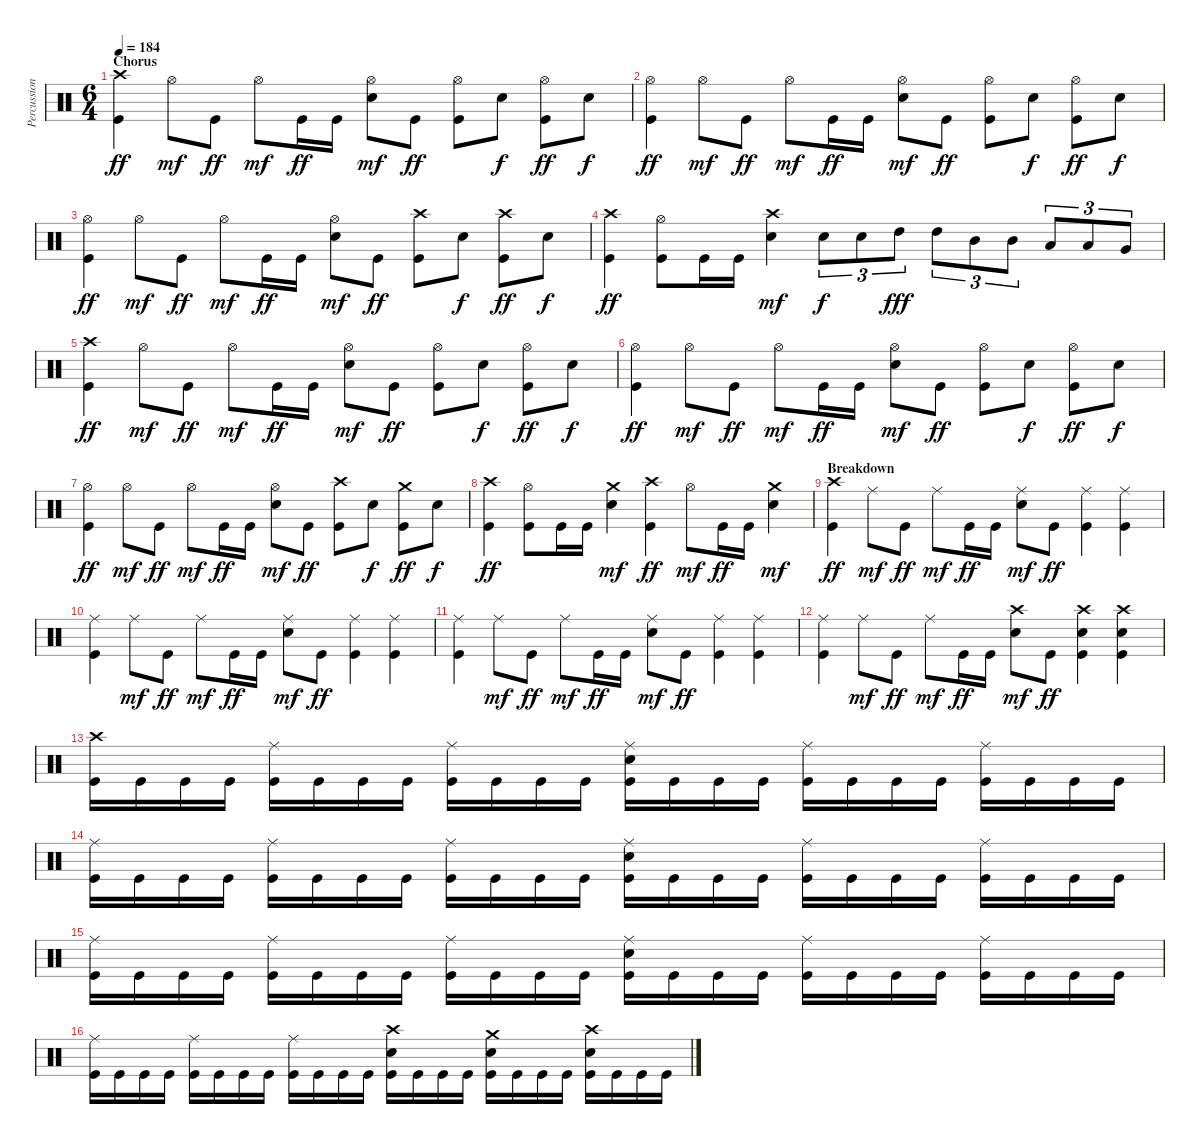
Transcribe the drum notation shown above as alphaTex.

\track ("Percussion" "Percussion") {instrument percussion}
\staff {score}
\articulation defaults
\ts (6 4)
\section ("" "Chorus")
\tempo 184
\clef neutral
\ks c
("Crash high (hit)" "Kick (hit)").4{dy ff} "Hi-Hat (open)".8{dy mf} "Kick (hit)".8{dy ff} "Hi-Hat (open)".8{dy mf} "Kick (hit)".16{dy ff} "Kick (hit)".16 ("Hi-Hat (open)" "Electric Snare (hit)").8{dy mf} "Kick (hit)".8{dy ff} ("Hi-Hat (open)" "Kick (hit)").8 "Electric Snare (hit)".8{dy f} ("Hi-Hat (open)" "Kick (hit)").8{dy ff} "Electric Snare (hit)".8{dy f} |
("Hi-Hat (open)" "Kick (hit)").4{dy ff} "Hi-Hat (open)".8{dy mf} "Kick (hit)".8{dy ff} "Hi-Hat (open)".8{dy mf} "Kick (hit)".16{dy ff} "Kick (hit)".16 ("Hi-Hat (open)" "Electric Snare (hit)").8{dy mf} "Kick (hit)".8{dy ff} ("Hi-Hat (open)" "Kick (hit)").8 "Electric Snare (hit)".8{dy f} ("Hi-Hat (open)" "Kick (hit)").8{dy ff} "Electric Snare (hit)".8{dy f} |
("Hi-Hat (open)" "Kick (hit)").4{dy ff} "Hi-Hat (open)".8{dy mf} "Kick (hit)".8{dy ff} "Hi-Hat (open)".8{dy mf} "Kick (hit)".16{dy ff} "Kick (hit)".16 ("Hi-Hat (open)" "Electric Snare (hit)").8{dy mf} "Kick (hit)".8{dy ff} ("Crash high (hit)" "Kick (hit)").8 "Electric Snare (hit)".8{dy f} ("Crash high (hit)" "Kick (hit)").8{dy ff} "Electric Snare (hit)".8{dy f} |
("Crash high (hit)" "Kick (hit)").4{dy ff} ("Hi-Hat (open)" "Kick (hit)").8 "Kick (hit)".16 "Kick (hit)".16 ("Crash high (hit)" "Electric Snare (hit)").4{dy mf} "Electric Snare (hit)".8{tu (3 2) dy f} "Electric Snare (hit)".8{tu (3 2)} "High Tom (hit)".8{tu (3 2) dy fff} "High Tom (hit)".8{tu (3 2)} "Mid Tom (hit)".8{tu (3 2)} "Mid Tom (hit)".8{tu (3 2)} "Low Tom (hit)".8{tu (3 2)} "Low Tom (hit)".8{tu (3 2)} "Very Low Tom (hit)".8{tu (3 2)} |
("Crash high (hit)" "Kick (hit)").4{dy ff} "Hi-Hat (open)".8{dy mf} "Kick (hit)".8{dy ff} "Hi-Hat (open)".8{dy mf} "Kick (hit)".16{dy ff} "Kick (hit)".16 ("Hi-Hat (open)" "Electric Snare (hit)").8{dy mf} "Kick (hit)".8{dy ff} ("Hi-Hat (open)" "Kick (hit)").8 "Electric Snare (hit)".8{dy f} ("Hi-Hat (open)" "Kick (hit)").8{dy ff} "Electric Snare (hit)".8{dy f} |
("Hi-Hat (open)" "Kick (hit)").4{dy ff} "Hi-Hat (open)".8{dy mf} "Kick (hit)".8{dy ff} "Hi-Hat (open)".8{dy mf} "Kick (hit)".16{dy ff} "Kick (hit)".16 ("Hi-Hat (open)" "Electric Snare (hit)").8{dy mf} "Kick (hit)".8{dy ff} ("Hi-Hat (open)" "Kick (hit)").8 "Electric Snare (hit)".8{dy f} ("Hi-Hat (open)" "Kick (hit)").8{dy ff} "Electric Snare (hit)".8{dy f} |
("Hi-Hat (open)" "Kick (hit)").4{dy ff} "Hi-Hat (open)".8{dy mf} "Kick (hit)".8{dy ff} "Hi-Hat (open)".8{dy mf} "Kick (hit)".16{dy ff} "Kick (hit)".16 ("Hi-Hat (open)" "Electric Snare (hit)").8{dy mf} "Kick (hit)".8{dy ff} ("Crash high (hit)" "Kick (hit)").8 "Electric Snare (hit)".8{dy f} ("Crash medium (hit)" "Kick (hit)").8{dy ff} "Electric Snare (hit)".8{dy f} |
("Crash high (hit)" "Kick (hit)").4{dy ff} ("Hi-Hat (open)" "Kick (hit)").8 "Kick (hit)".16 "Kick (hit)".16 ("Crash medium (hit)" "Electric Snare (hit)").4{dy mf} ("Crash high (hit)" "Kick (hit)").4{dy ff} "Hi-Hat (open)".8{dy mf} "Kick (hit)".16{dy ff} "Kick (hit)".16 ("Crash medium (hit)" "Electric Snare (hit)").4{dy mf} |
\section ("" "Breakdown")
("Crash high (hit)" "Kick (hit)").4{dy ff} "Ride (middle)".8{dy mf} "Kick (hit)".8{dy ff} "Ride (middle)".8{dy mf} "Kick (hit)".16{dy ff} "Kick (hit)".16 ("Ride (middle)" "Electric Snare (hit)").8{dy mf} "Kick (hit)".8{dy ff} ("Ride (middle)" "Kick (hit)").4 ("Ride (middle)" "Kick (hit)").4 |
("Ride (middle)" "Kick (hit)").4 "Ride (middle)".8{dy mf} "Kick (hit)".8{dy ff} "Ride (middle)".8{dy mf} "Kick (hit)".16{dy ff} "Kick (hit)".16 ("Ride (middle)" "Electric Snare (hit)").8{dy mf} "Kick (hit)".8{dy ff} ("Ride (middle)" "Kick (hit)").4 ("Ride (middle)" "Kick (hit)").4 |
("Ride (middle)" "Kick (hit)").4 "Ride (middle)".8{dy mf} "Kick (hit)".8{dy ff} "Ride (middle)".8{dy mf} "Kick (hit)".16{dy ff} "Kick (hit)".16 ("Ride (middle)" "Electric Snare (hit)").8{dy mf} "Kick (hit)".8{dy ff} ("Ride (middle)" "Kick (hit)").4 ("Ride (middle)" "Kick (hit)").4 |
("Ride (middle)" "Kick (hit)").4 "Ride (middle)".8{dy mf} "Kick (hit)".8{dy ff} "Ride (middle)".8{dy mf} "Kick (hit)".16{dy ff} "Kick (hit)".16 ("Crash high (hit)" "Electric Snare (hit)").8{dy mf} "Kick (hit)".8{dy ff} ("Crash high (hit)" "Electric Snare (hit)" "Kick (hit)").4 ("Crash high (hit)" "Electric Snare (hit)" "Kick (hit)").4 |
("Crash high (hit)" "Kick (hit)").16 "Kick (hit)".16 "Kick (hit)".16 "Kick (hit)".16 ("Ride (middle)" "Kick (hit)").16 "Kick (hit)".16 "Kick (hit)".16 "Kick (hit)".16 ("Ride (middle)" "Kick (hit)").16 "Kick (hit)".16 "Kick (hit)".16 "Kick (hit)".16 ("Ride (middle)" "Electric Snare (hit)" "Kick (hit)").16 "Kick (hit)".16 "Kick (hit)".16 "Kick (hit)".16 ("Ride (middle)" "Kick (hit)").16 "Kick (hit)".16 "Kick (hit)".16 "Kick (hit)".16 ("Ride (middle)" "Kick (hit)").16 "Kick (hit)".16 "Kick (hit)".16 "Kick (hit)".16 |
("Ride (middle)" "Kick (hit)").16 "Kick (hit)".16 "Kick (hit)".16 "Kick (hit)".16 ("Ride (middle)" "Kick (hit)").16 "Kick (hit)".16 "Kick (hit)".16 "Kick (hit)".16 ("Ride (middle)" "Kick (hit)").16 "Kick (hit)".16 "Kick (hit)".16 "Kick (hit)".16 ("Ride (middle)" "Electric Snare (hit)" "Kick (hit)").16 "Kick (hit)".16 "Kick (hit)".16 "Kick (hit)".16 ("Ride (middle)" "Kick (hit)").16 "Kick (hit)".16 "Kick (hit)".16 "Kick (hit)".16 ("Ride (middle)" "Kick (hit)").16 "Kick (hit)".16 "Kick (hit)".16 "Kick (hit)".16 |
("Ride (middle)" "Kick (hit)").16 "Kick (hit)".16 "Kick (hit)".16 "Kick (hit)".16 ("Ride (middle)" "Kick (hit)").16 "Kick (hit)".16 "Kick (hit)".16 "Kick (hit)".16 ("Ride (middle)" "Kick (hit)").16 "Kick (hit)".16 "Kick (hit)".16 "Kick (hit)".16 ("Ride (middle)" "Electric Snare (hit)" "Kick (hit)").16 "Kick (hit)".16 "Kick (hit)".16 "Kick (hit)".16 ("Ride (middle)" "Kick (hit)").16 "Kick (hit)".16 "Kick (hit)".16 "Kick (hit)".16 ("Ride (middle)" "Kick (hit)").16 "Kick (hit)".16 "Kick (hit)".16 "Kick (hit)".16 |
("Ride (middle)" "Kick (hit)").16 "Kick (hit)".16 "Kick (hit)".16 "Kick (hit)".16 ("Ride (middle)" "Kick (hit)").16 "Kick (hit)".16 "Kick (hit)".16 "Kick (hit)".16 ("Ride (middle)" "Kick (hit)").16 "Kick (hit)".16 "Kick (hit)".16 "Kick (hit)".16 ("Crash high (hit)" "Electric Snare (hit)" "Kick (hit)").16 "Kick (hit)".16 "Kick (hit)".16 "Kick (hit)".16 ("Crash medium (hit)" "Electric Snare (hit)" "Kick (hit)").16 "Kick (hit)".16 "Kick (hit)".16 "Kick (hit)".16 ("Crash high (hit)" "Electric Snare (hit)" "Kick (hit)").16 "Kick (hit)".16 "Kick (hit)".16 "Kick (hit)".16
